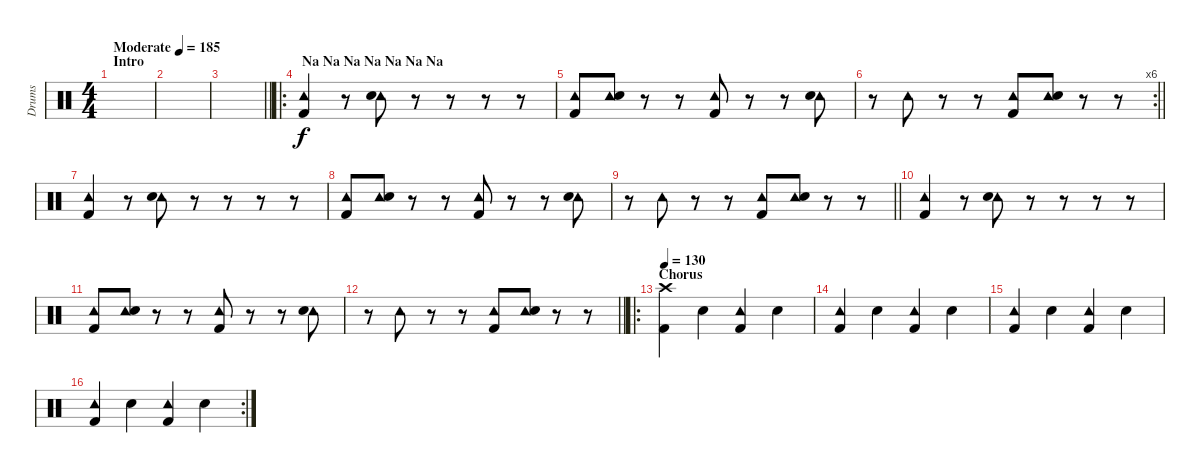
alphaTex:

\track ("Drums" "Drums") {instrument percussion}
\staff {score}
\articulation defaults
\ts (4 4)
\section ("" "Intro")
\tempo (185 "Moderate")
\clef neutral
\ks c
|
|
\barLineRight lightlight
|
\ro
\section ("" " Na Na Na Na Na Na Na")
("Tambourine (hit)" "Kick (hit) 2").4 r.8 ("Tambourine (hit)" "Snare (hit) 2").8 r.8 r.8 r.8 r.8 |
("Tambourine (hit)" "Kick (hit) 2").8 ("Tambourine (hit)" "Snare (hit) 2").8 r.8 r.8 ("Tambourine (hit)" "Kick (hit) 2").8 r.8 r.8 ("Tambourine (hit)" "Snare (hit) 2").8 |
\rc 6
\barLineRight lightlight
r.8 "Tambourine (hit)".8 r.8 r.8 ("Tambourine (hit)" "Kick (hit) 2").8 ("Tambourine (hit)" "Snare (hit) 2").8 r.8 r.8 |
("Tambourine (hit)" "Kick (hit) 2").4 r.8 ("Tambourine (hit)" "Snare (hit) 2").8 r.8 r.8 r.8 r.8 |
("Tambourine (hit)" "Kick (hit) 2").8 ("Tambourine (hit)" "Snare (hit) 2").8 r.8 r.8 ("Tambourine (hit)" "Kick (hit) 2").8 r.8 r.8 ("Tambourine (hit)" "Snare (hit) 2").8 |
\barLineRight lightlight
r.8 "Tambourine (hit)".8 r.8 r.8 ("Tambourine (hit)" "Kick (hit) 2").8 ("Tambourine (hit)" "Snare (hit) 2").8 r.8 r.8 |
("Tambourine (hit)" "Kick (hit) 2").4 r.8 ("Tambourine (hit)" "Snare (hit) 2").8 r.8 r.8 r.8 r.8 |
("Tambourine (hit)" "Kick (hit) 2").8 ("Tambourine (hit)" "Snare (hit) 2").8 r.8 r.8 ("Tambourine (hit)" "Kick (hit) 2").8 r.8 r.8 ("Tambourine (hit)" "Snare (hit) 2").8 |
\barLineRight lightlight
r.8 "Tambourine (hit)".8 r.8 r.8 ("Tambourine (hit)" "Kick (hit) 2").8 ("Tambourine (hit)" "Snare (hit) 2").8 r.8 r.8 |
\ro
\section ("" "Chorus")
\tempo 130
("Crash high (hit)" "Kick (hit) 2").4 "Snare (hit) 2".4 ("Tambourine (hit)" "Kick (hit) 2").4 "Snare (hit) 2".4 |
("Tambourine (hit)" "Kick (hit) 2").4 "Snare (hit) 2".4 ("Tambourine (hit)" "Kick (hit) 2").4 "Snare (hit) 2".4 |
("Tambourine (hit)" "Kick (hit) 2").4 "Snare (hit) 2".4 ("Tambourine (hit)" "Kick (hit) 2").4 "Snare (hit) 2".4 |
\rc 2
("Tambourine (hit)" "Kick (hit) 2").4 "Snare (hit) 2".4 ("Tambourine (hit)" "Kick (hit) 2").4 "Snare (hit) 2".4
